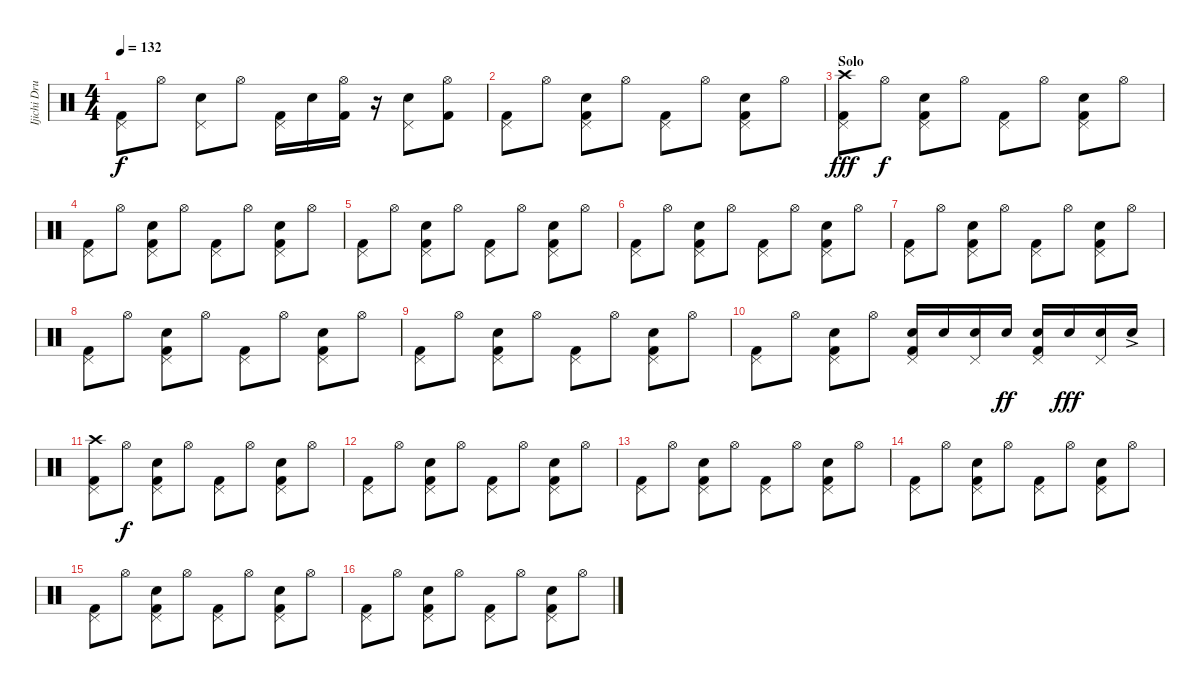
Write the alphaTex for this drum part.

\track ("Ijichi Drums" "Ijichi Dru") {instrument percussion}
\staff {score}
\articulation defaults
\ts (4 4)
\tempo 132
\clef neutral
\ks c
("Pedal Hi-Hat (hit)" "Kick (hit) 2").8{dy f} "Hi-Hat (open)".8 ("Pedal Hi-Hat (hit)" "Snare (hit) 2").8 "Hi-Hat (open)".8 ("Pedal Hi-Hat (hit)" "Kick (hit) 2").16 "Snare (hit) 2".16 ("Hi-Hat (open)" "Kick (hit) 2").16 r.16 ("Pedal Hi-Hat (hit)" "Snare (hit) 2").8 ("Hi-Hat (open)" "Kick (hit) 2").8 |
("Pedal Hi-Hat (hit)" "Kick (hit) 2").8 "Hi-Hat (open)".8 ("Pedal Hi-Hat (hit)" "Snare (hit) 2" "Kick (hit) 2").8 "Hi-Hat (open)".8 ("Pedal Hi-Hat (hit)" "Kick (hit) 2").8 "Hi-Hat (open)".8 ("Pedal Hi-Hat (hit)" "Snare (hit) 2" "Kick (hit) 2").8 "Hi-Hat (open)".8 |
\section ("" "Solo")
("Pedal Hi-Hat (hit)" "Crash high (hit)" "Kick (hit) 2").8{dy fff} "Hi-Hat (open)".8{dy f} ("Pedal Hi-Hat (hit)" "Snare (hit) 2" "Kick (hit) 2").8 "Hi-Hat (open)".8 ("Pedal Hi-Hat (hit)" "Kick (hit) 2").8 "Hi-Hat (open)".8 ("Pedal Hi-Hat (hit)" "Snare (hit) 2" "Kick (hit) 2").8 "Hi-Hat (open)".8 |
("Pedal Hi-Hat (hit)" "Kick (hit) 2").8 "Hi-Hat (open)".8 ("Pedal Hi-Hat (hit)" "Snare (hit) 2" "Kick (hit) 2").8 "Hi-Hat (open)".8 ("Pedal Hi-Hat (hit)" "Kick (hit) 2").8 "Hi-Hat (open)".8 ("Pedal Hi-Hat (hit)" "Snare (hit) 2" "Kick (hit) 2").8 "Hi-Hat (open)".8 |
("Pedal Hi-Hat (hit)" "Kick (hit) 2").8 "Hi-Hat (open)".8 ("Pedal Hi-Hat (hit)" "Snare (hit) 2" "Kick (hit) 2").8 "Hi-Hat (open)".8 ("Pedal Hi-Hat (hit)" "Kick (hit) 2").8 "Hi-Hat (open)".8 ("Pedal Hi-Hat (hit)" "Snare (hit) 2" "Kick (hit) 2").8 "Hi-Hat (open)".8 |
("Pedal Hi-Hat (hit)" "Kick (hit) 2").8 "Hi-Hat (open)".8 ("Pedal Hi-Hat (hit)" "Snare (hit) 2" "Kick (hit) 2").8 "Hi-Hat (open)".8 ("Pedal Hi-Hat (hit)" "Kick (hit) 2").8 "Hi-Hat (open)".8 ("Pedal Hi-Hat (hit)" "Snare (hit) 2" "Kick (hit) 2").8 "Hi-Hat (open)".8 |
("Pedal Hi-Hat (hit)" "Kick (hit) 2").8 "Hi-Hat (open)".8 ("Pedal Hi-Hat (hit)" "Snare (hit) 2" "Kick (hit) 2").8 "Hi-Hat (open)".8 ("Pedal Hi-Hat (hit)" "Kick (hit) 2").8 "Hi-Hat (open)".8 ("Pedal Hi-Hat (hit)" "Snare (hit) 2" "Kick (hit) 2").8 "Hi-Hat (open)".8 |
("Pedal Hi-Hat (hit)" "Kick (hit) 2").8 "Hi-Hat (open)".8 ("Pedal Hi-Hat (hit)" "Snare (hit) 2" "Kick (hit) 2").8 "Hi-Hat (open)".8 ("Pedal Hi-Hat (hit)" "Kick (hit) 2").8 "Hi-Hat (open)".8 ("Pedal Hi-Hat (hit)" "Snare (hit) 2" "Kick (hit) 2").8 "Hi-Hat (open)".8 |
("Pedal Hi-Hat (hit)" "Kick (hit) 2").8 "Hi-Hat (open)".8 ("Pedal Hi-Hat (hit)" "Snare (hit) 2" "Kick (hit) 2").8 "Hi-Hat (open)".8 ("Pedal Hi-Hat (hit)" "Kick (hit) 2").8 "Hi-Hat (open)".8 ("Pedal Hi-Hat (hit)" "Snare (hit) 2" "Kick (hit) 2").8 "Hi-Hat (open)".8 |
("Pedal Hi-Hat (hit)" "Kick (hit) 2").8 "Hi-Hat (open)".8 ("Pedal Hi-Hat (hit)" "Snare (hit) 2" "Kick (hit) 2").8 "Hi-Hat (open)".8 ("Pedal Hi-Hat (hit)" "Snare (hit) 2" "Kick (hit) 2").16 "Snare (hit) 2".16 ("Pedal Hi-Hat (hit)" "Snare (hit) 2").16 "Snare (hit) 2".16{dy ff} ("Pedal Hi-Hat (hit)" "Snare (hit) 2" "Kick (hit) 2").16 "Snare (hit) 2".16{dy fff} ("Pedal Hi-Hat (hit)" "Snare (hit) 2").16 "Snare (hit) 2"{ac}.16 |
("Pedal Hi-Hat (hit)" "Crash high (hit)" "Kick (hit) 2").8 "Hi-Hat (open)".8{dy f} ("Pedal Hi-Hat (hit)" "Snare (hit) 2" "Kick (hit) 2").8 "Hi-Hat (open)".8 ("Pedal Hi-Hat (hit)" "Kick (hit) 2").8 "Hi-Hat (open)".8 ("Pedal Hi-Hat (hit)" "Snare (hit) 2" "Kick (hit) 2").8 "Hi-Hat (open)".8 |
("Pedal Hi-Hat (hit)" "Kick (hit) 2").8 "Hi-Hat (open)".8 ("Pedal Hi-Hat (hit)" "Snare (hit) 2" "Kick (hit) 2").8 "Hi-Hat (open)".8 ("Pedal Hi-Hat (hit)" "Kick (hit) 2").8 "Hi-Hat (open)".8 ("Pedal Hi-Hat (hit)" "Snare (hit) 2" "Kick (hit) 2").8 "Hi-Hat (open)".8 |
("Pedal Hi-Hat (hit)" "Kick (hit) 2").8 "Hi-Hat (open)".8 ("Pedal Hi-Hat (hit)" "Snare (hit) 2" "Kick (hit) 2").8 "Hi-Hat (open)".8 ("Pedal Hi-Hat (hit)" "Kick (hit) 2").8 "Hi-Hat (open)".8 ("Pedal Hi-Hat (hit)" "Snare (hit) 2" "Kick (hit) 2").8 "Hi-Hat (open)".8 |
("Pedal Hi-Hat (hit)" "Kick (hit) 2").8 "Hi-Hat (open)".8 ("Pedal Hi-Hat (hit)" "Snare (hit) 2" "Kick (hit) 2").8 "Hi-Hat (open)".8 ("Pedal Hi-Hat (hit)" "Kick (hit) 2").8 "Hi-Hat (open)".8 ("Pedal Hi-Hat (hit)" "Snare (hit) 2" "Kick (hit) 2").8 "Hi-Hat (open)".8 |
("Pedal Hi-Hat (hit)" "Kick (hit) 2").8 "Hi-Hat (open)".8 ("Pedal Hi-Hat (hit)" "Snare (hit) 2" "Kick (hit) 2").8 "Hi-Hat (open)".8 ("Pedal Hi-Hat (hit)" "Kick (hit) 2").8 "Hi-Hat (open)".8 ("Pedal Hi-Hat (hit)" "Snare (hit) 2" "Kick (hit) 2").8 "Hi-Hat (open)".8 |
("Pedal Hi-Hat (hit)" "Kick (hit) 2").8 "Hi-Hat (open)".8 ("Pedal Hi-Hat (hit)" "Snare (hit) 2" "Kick (hit) 2").8 "Hi-Hat (open)".8 ("Pedal Hi-Hat (hit)" "Kick (hit) 2").8 "Hi-Hat (open)".8 ("Pedal Hi-Hat (hit)" "Snare (hit) 2" "Kick (hit) 2").8 "Hi-Hat (open)".8
